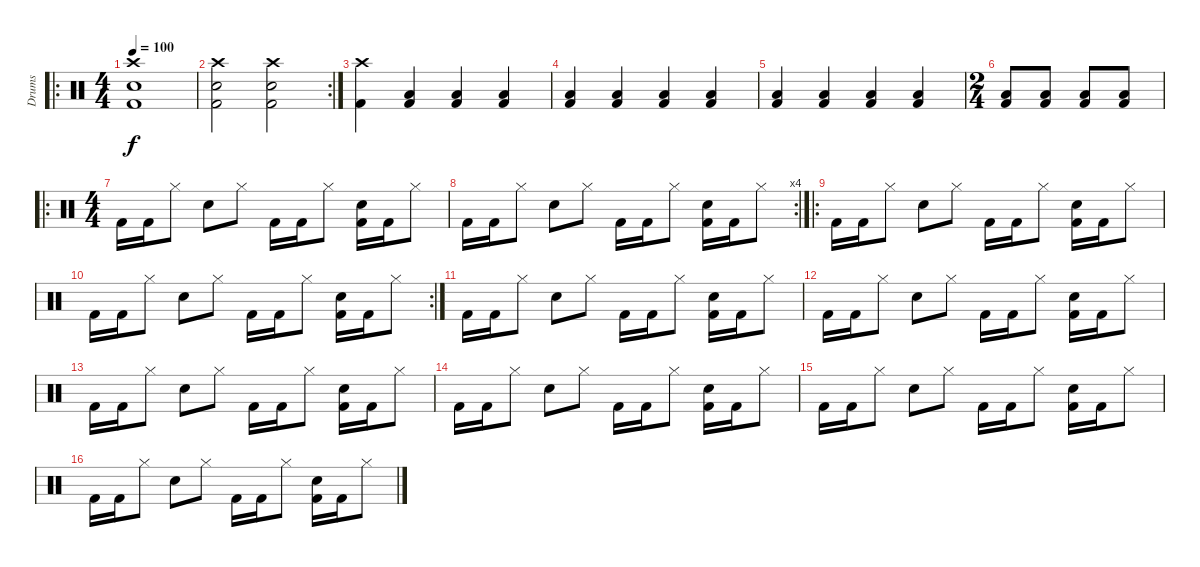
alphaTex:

\track ("Drums" "Drums") {instrument percussion}
\staff {score}
\articulation defaults
\ro
\ts (4 4)
\tempo 100
\clef neutral
\ks c
("Crash high (hit)" "Electric Snare (hit)" "Kick (hit) 2").1{dy f} |
\rc 2
("Crash high (hit)" "Electric Snare (hit)" "Kick (hit) 2").2 ("Crash high (hit)" "Electric Snare (hit)" "Kick (hit) 2").2 |
("Crash high (hit)" "Kick (hit) 2").4 ("Low Tom (hit)" "Kick (hit) 2").4 ("Low Tom (hit)" "Kick (hit) 2").4 ("Low Tom (hit)" "Kick (hit) 2").4 |
("Low Tom (hit)" "Kick (hit) 2").4 ("Low Tom (hit)" "Kick (hit) 2").4 ("Low Tom (hit)" "Kick (hit) 2").4 ("Low Tom (hit)" "Kick (hit) 2").4 |
("Low Tom (hit)" "Kick (hit) 2").4 ("Low Tom (hit)" "Kick (hit) 2").4 ("Low Tom (hit)" "Kick (hit) 2").4 ("Low Tom (hit)" "Kick (hit) 2").4 |
\ts (2 4)
("Low Tom (hit)" "Kick (hit) 2").8 ("Low Tom (hit)" "Kick (hit) 2").8 ("Low Tom (hit)" "Kick (hit) 2").8 ("Low Tom (hit)" "Kick (hit) 2").8 |
\ro
\ts (4 4)
"Kick (hit) 2".16 "Kick (hit) 2".16 "Hi-Hat (closed)".8 "Electric Snare (hit)".8 "Hi-Hat (closed)".8 "Kick (hit) 2".16 "Kick (hit) 2".16 "Hi-Hat (closed)".8 ("Electric Snare (hit)" "Kick (hit) 2").16 "Kick (hit) 2".16 "Hi-Hat (closed)".8 |
\rc 4 "Kick (hit) 2".16 "Kick (hit) 2".16 "Hi-Hat (closed)".8 "Electric Snare (hit)".8 "Hi-Hat (closed)".8 "Kick (hit) 2".16 "Kick (hit) 2".16 "Hi-Hat (closed)".8
("Electric Snare (hit)" "Kick (hit) 2").16 "Kick (hit) 2".16 "Hi-Hat (closed)".8 |
\ro "Kick (hit) 2".16 "Kick (hit) 2".16 "Hi-Hat (closed)".8 "Electric Snare (hit)".8 "Hi-Hat (closed)".8 "Kick (hit) 2".16 "Kick (hit) 2".16 "Hi-Hat (closed)".8
("Electric Snare (hit)" "Kick (hit) 2").16 "Kick (hit) 2".16 "Hi-Hat (closed)".8 |
\rc 2 "Kick (hit) 2".16 "Kick (hit) 2".16 "Hi-Hat (closed)".8 "Electric Snare (hit)".8 "Hi-Hat (closed)".8 "Kick (hit) 2".16 "Kick (hit) 2".16 "Hi-Hat (closed)".8
("Electric Snare (hit)" "Kick (hit) 2").16 "Kick (hit) 2".16 "Hi-Hat (closed)".8 |
"Kick (hit) 2".16 "Kick (hit) 2".16 "Hi-Hat (closed)".8 "Electric Snare (hit)".8 "Hi-Hat (closed)".8 "Kick (hit) 2".16 "Kick (hit) 2".16 "Hi-Hat (closed)".8 ("Electric Snare (hit)" "Kick (hit) 2").16 "Kick (hit) 2".16 "Hi-Hat (closed)".8 |
"Kick (hit) 2".16 "Kick (hit) 2".16 "Hi-Hat (closed)".8 "Electric Snare (hit)".8 "Hi-Hat (closed)".8 "Kick (hit) 2".16 "Kick (hit) 2".16 "Hi-Hat (closed)".8 ("Electric Snare (hit)" "Kick (hit) 2").16 "Kick (hit) 2".16 "Hi-Hat (closed)".8 |
"Kick (hit) 2".16 "Kick (hit) 2".16 "Hi-Hat (closed)".8 "Electric Snare (hit)".8 "Hi-Hat (closed)".8 "Kick (hit) 2".16 "Kick (hit) 2".16 "Hi-Hat (closed)".8 ("Electric Snare (hit)" "Kick (hit) 2").16 "Kick (hit) 2".16 "Hi-Hat (closed)".8 |
"Kick (hit) 2".16 "Kick (hit) 2".16 "Hi-Hat (closed)".8 "Electric Snare (hit)".8 "Hi-Hat (closed)".8 "Kick (hit) 2".16 "Kick (hit) 2".16 "Hi-Hat (closed)".8 ("Electric Snare (hit)" "Kick (hit) 2").16 "Kick (hit) 2".16 "Hi-Hat (closed)".8 |
"Kick (hit) 2".16 "Kick (hit) 2".16 "Hi-Hat (closed)".8 "Electric Snare (hit)".8 "Hi-Hat (closed)".8 "Kick (hit) 2".16 "Kick (hit) 2".16 "Hi-Hat (closed)".8 ("Electric Snare (hit)" "Kick (hit) 2").16 "Kick (hit) 2".16 "Hi-Hat (closed)".8 |
"Kick (hit) 2".16 "Kick (hit) 2".16 "Hi-Hat (closed)".8 "Electric Snare (hit)".8 "Hi-Hat (closed)".8 "Kick (hit) 2".16 "Kick (hit) 2".16 "Hi-Hat (closed)".8 ("Electric Snare (hit)" "Kick (hit) 2").16 "Kick (hit) 2".16 "Hi-Hat (closed)".8
